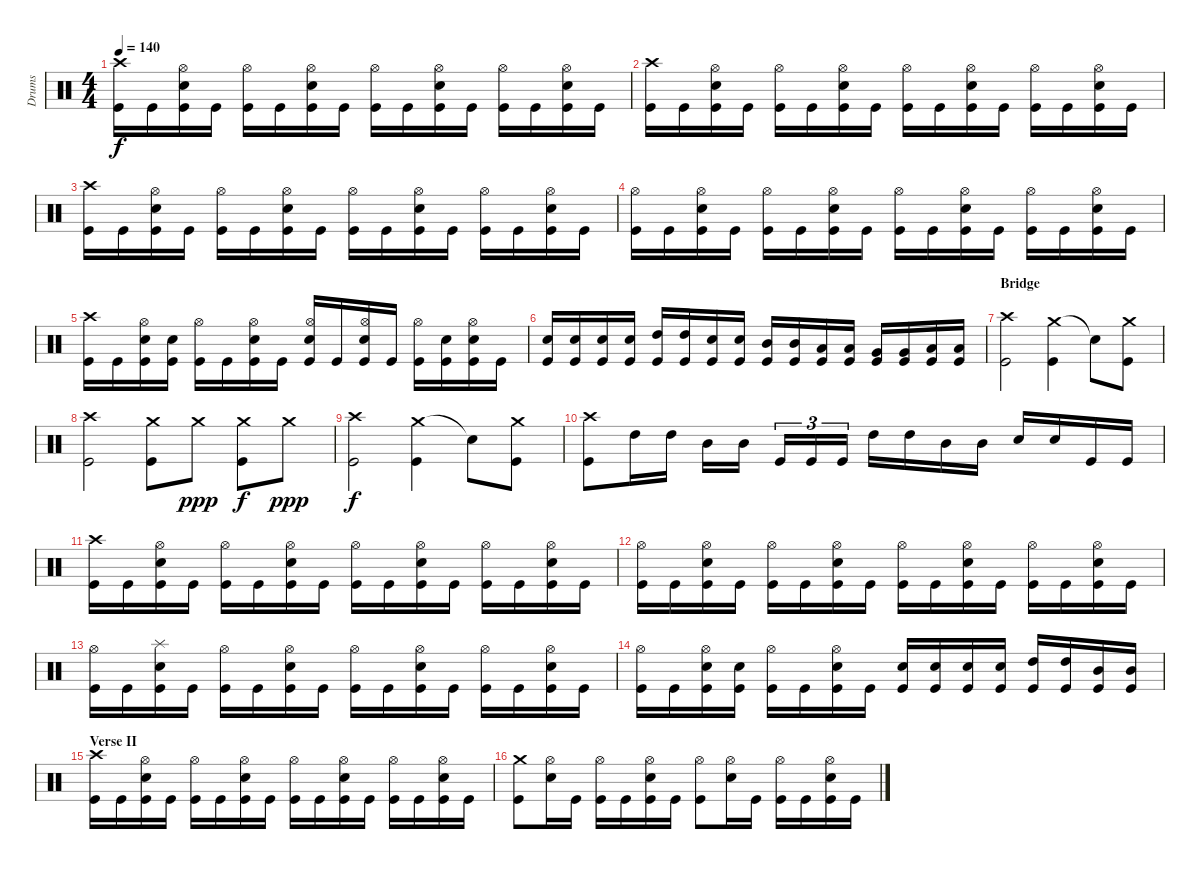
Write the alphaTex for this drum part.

\track ("Drums" "Drums") {instrument percussion}
\staff {score}
\articulation defaults
\ts (4 4)
\tempo 140
\clef neutral
\ks c
("Crash high (hit)" "Kick (hit)").16{dy f} "Kick (hit)".16 ("Hi-Hat (open)" "Electric Snare (hit)" "Kick (hit)").16 "Kick (hit)".16 ("Hi-Hat (open)" "Kick (hit)").16 "Kick (hit)".16 ("Hi-Hat (open)" "Electric Snare (hit)" "Kick (hit)").16 "Kick (hit)".16 ("Hi-Hat (open)" "Kick (hit)").16 "Kick (hit)".16 ("Hi-Hat (open)" "Electric Snare (hit)" "Kick (hit)").16 "Kick (hit)".16 ("Hi-Hat (open)" "Kick (hit)").16 "Kick (hit)".16 ("Hi-Hat (open)" "Electric Snare (hit)" "Kick (hit)").16 "Kick (hit)".16 |
("Crash high (hit)" "Kick (hit)").16 "Kick (hit)".16 ("Hi-Hat (open)" "Electric Snare (hit)" "Kick (hit)").16 "Kick (hit)".16 ("Hi-Hat (open)" "Kick (hit)").16 "Kick (hit)".16 ("Hi-Hat (open)" "Electric Snare (hit)" "Kick (hit)").16 "Kick (hit)".16 ("Hi-Hat (open)" "Kick (hit)").16 "Kick (hit)".16 ("Hi-Hat (open)" "Electric Snare (hit)" "Kick (hit)").16 "Kick (hit)".16 ("Hi-Hat (open)" "Kick (hit)").16 "Kick (hit)".16 ("Hi-Hat (open)" "Electric Snare (hit)" "Kick (hit)").16 "Kick (hit)".16 |
("Crash high (hit)" "Kick (hit)").16 "Kick (hit)".16 ("Hi-Hat (open)" "Electric Snare (hit)" "Kick (hit)").16 "Kick (hit)".16 ("Hi-Hat (open)" "Kick (hit)").16 "Kick (hit)".16 ("Hi-Hat (open)" "Electric Snare (hit)" "Kick (hit)").16 "Kick (hit)".16 ("Hi-Hat (open)" "Kick (hit)").16 "Kick (hit)".16 ("Hi-Hat (open)" "Electric Snare (hit)" "Kick (hit)").16 "Kick (hit)".16 ("Hi-Hat (open)" "Kick (hit)").16 "Kick (hit)".16 ("Hi-Hat (open)" "Electric Snare (hit)" "Kick (hit)").16 "Kick (hit)".16 |
("Hi-Hat (open)" "Kick (hit)").16 "Kick (hit)".16 ("Hi-Hat (open)" "Electric Snare (hit)" "Kick (hit)").16 "Kick (hit)".16 ("Hi-Hat (open)" "Kick (hit)").16 "Kick (hit)".16 ("Hi-Hat (open)" "Electric Snare (hit)" "Kick (hit)").16 "Kick (hit)".16 ("Hi-Hat (open)" "Kick (hit)").16 "Kick (hit)".16 ("Hi-Hat (open)" "Electric Snare (hit)" "Kick (hit)").16 "Kick (hit)".16 ("Hi-Hat (open)" "Kick (hit)").16 "Kick (hit)".16 ("Hi-Hat (open)" "Electric Snare (hit)" "Kick (hit)").16 "Kick (hit)".16 |
("Crash high (hit)" "Kick (hit)").16 "Kick (hit)".16 ("Hi-Hat (open)" "Electric Snare (hit)" "Kick (hit)").16 ("Electric Snare (hit)" "Kick (hit)").16 ("Hi-Hat (open)" "Kick (hit)").16 "Kick (hit)".16 ("Hi-Hat (open)" "Electric Snare (hit)" "Kick (hit)").16 "Kick (hit)".16 ("Hi-Hat (open)" "Electric Snare (hit)" "Kick (hit)").16 "Kick (hit)".16 ("Hi-Hat (open)" "Electric Snare (hit)" "Kick (hit)").16 "Kick (hit)".16 ("Hi-Hat (open)" "Kick (hit)").16 ("Electric Snare (hit)" "Kick (hit)").16 ("Hi-Hat (open)" "Electric Snare (hit)" "Kick (hit)").16 "Kick (hit)".16 |
("Electric Snare (hit)" "Kick (hit)").16 ("Electric Snare (hit)" "Kick (hit)").16 ("Electric Snare (hit)" "Kick (hit)").16 ("Electric Snare (hit)" "Kick (hit)").16 ("High Tom (hit)" "Kick (hit)").16 ("High Tom (hit)" "Kick (hit)").16 ("Electric Snare (hit)" "Kick (hit)").16 ("Electric Snare (hit)" "Kick (hit)").16 ("Mid Tom (hit)" "Kick (hit)").16 ("Mid Tom (hit)" "Kick (hit)").16 ("Low Tom (hit)" "Kick (hit)").16 ("Low Tom (hit)" "Kick (hit)").16 ("Very Low Tom (hit)" "Kick (hit)").16 ("Very Low Tom (hit)" "Kick (hit)").16 ("Low Floor Tom (hit)" "Kick (hit)").16 ("Low Floor Tom (hit)" "Kick (hit)").16 |
\section ("" "Bridge")
("Crash high (hit)" "Kick (hit)").2 ("Crash medium (hit)" "Kick (hit)").4 "Snare (hit)"{t}.8 ("Crash medium (hit)" "Kick (hit)").8 |
("Crash high (hit)" "Kick (hit)").2 ("Crash medium (hit)" "Kick (hit)").8 "Crash medium (hit)".8{dy ppp} ("Crash medium (hit)" "Kick (hit)").8{dy f} "Crash medium (hit)".8{dy ppp} |
("Crash high (hit)" "Kick (hit)").2{dy f} ("Crash medium (hit)" "Kick (hit)").4 "Snare (hit)"{t}.8 ("Crash medium (hit)" "Kick (hit)").8 |
("Crash high (hit)" "Kick (hit)").8 "High Tom (hit)".16 "High Tom (hit)".16 "Mid Tom (hit)".16 "Mid Tom (hit)".16 "Kick (hit)".16{tu (3 2)} "Kick (hit)".16{tu (3 2)} "Kick (hit)".16{tu (3 2)} "High Tom (hit)".16 "High Tom (hit)".16 "Mid Tom (hit)".16 "Mid Tom (hit)".16 "Electric Snare (hit)".16 "Electric Snare (hit)".16 "Kick (hit)".16 "Kick (hit)".16 |
("Crash high (hit)" "Kick (hit)").16 "Kick (hit)".16 ("Hi-Hat (open)" "Electric Snare (hit)" "Kick (hit)").16 "Kick (hit)".16 ("Hi-Hat (open)" "Kick (hit)").16 "Kick (hit)".16 ("Hi-Hat (open)" "Electric Snare (hit)" "Kick (hit)").16 "Kick (hit)".16 ("Hi-Hat (open)" "Kick (hit)").16 "Kick (hit)".16 ("Hi-Hat (open)" "Electric Snare (hit)" "Kick (hit)").16 "Kick (hit)".16 ("Hi-Hat (open)" "Kick (hit)").16 "Kick (hit)".16 ("Hi-Hat (open)" "Electric Snare (hit)" "Kick (hit)").16 "Kick (hit)".16 |
("Hi-Hat (open)" "Kick (hit)").16 "Kick (hit)".16 ("Hi-Hat (open)" "Electric Snare (hit)" "Kick (hit)").16 "Kick (hit)".16 ("Hi-Hat (open)" "Kick (hit)").16 "Kick (hit)".16 ("Hi-Hat (open)" "Electric Snare (hit)" "Kick (hit)").16 "Kick (hit)".16 ("Hi-Hat (open)" "Kick (hit)").16 "Kick (hit)".16 ("Hi-Hat (open)" "Electric Snare (hit)" "Kick (hit)").16 "Kick (hit)".16 ("Hi-Hat (open)" "Kick (hit)").16 "Kick (hit)".16 ("Hi-Hat (open)" "Electric Snare (hit)" "Kick (hit)").16 "Kick (hit)".16 |
("Hi-Hat (open)" "Kick (hit)").16 "Kick (hit)".16 ("Splash (hit)" "Electric Snare (hit)" "Kick (hit)").16 "Kick (hit)".16 ("Hi-Hat (open)" "Kick (hit)").16 "Kick (hit)".16 ("Hi-Hat (open)" "Electric Snare (hit)" "Kick (hit)").16 "Kick (hit)".16 ("Hi-Hat (open)" "Kick (hit)").16 "Kick (hit)".16 ("Hi-Hat (open)" "Electric Snare (hit)" "Kick (hit)").16 "Kick (hit)".16 ("Hi-Hat (open)" "Kick (hit)").16 "Kick (hit)".16 ("Hi-Hat (open)" "Electric Snare (hit)" "Kick (hit)").16 "Kick (hit)".16 |
("Hi-Hat (open)" "Kick (hit)").16 "Kick (hit)".16 ("Hi-Hat (open)" "Electric Snare (hit)" "Kick (hit)").16 ("Electric Snare (hit)" "Kick (hit)").16 ("Hi-Hat (open)" "Kick (hit)").16 "Kick (hit)".16 ("Hi-Hat (open)" "Electric Snare (hit)" "Kick (hit)").16 "Kick (hit)".16 ("Electric Snare (hit)" "Kick (hit)").16 ("Electric Snare (hit)" "Kick (hit)").16 ("Electric Snare (hit)" "Kick (hit)").16 ("Electric Snare (hit)" "Kick (hit)").16 ("High Tom (hit)" "Kick (hit)").16 ("High Tom (hit)" "Kick (hit)").16 ("Mid Tom (hit)" "Kick (hit)").16 ("Mid Tom (hit)" "Kick (hit)").16 |
\section ("" "Verse II")
("Crash high (hit)" "Kick (hit)").16 "Kick (hit)".16 ("Hi-Hat (open)" "Electric Snare (hit)" "Kick (hit)").16 "Kick (hit)".16 ("Hi-Hat (open)" "Kick (hit)").16 "Kick (hit)".16 ("Hi-Hat (open)" "Electric Snare (hit)" "Kick (hit)").16 "Kick (hit)".16 ("Hi-Hat (open)" "Kick (hit)").16 "Kick (hit)".16 ("Hi-Hat (open)" "Electric Snare (hit)" "Kick (hit)").16 "Kick (hit)".16 ("Hi-Hat (open)" "Kick (hit)").16 "Kick (hit)".16 ("Hi-Hat (open)" "Electric Snare (hit)" "Kick (hit)").16 "Kick (hit)".16 |
("Crash medium (hit)" "Kick (hit)").8 ("Hi-Hat (open)" "Electric Snare (hit)").16 "Kick (hit)".16 ("Hi-Hat (open)" "Kick (hit)").16 "Kick (hit)".16 ("Hi-Hat (open)" "Electric Snare (hit)" "Kick (hit)").16 "Kick (hit)".16 ("Hi-Hat (open)" "Kick (hit)").8 ("Hi-Hat (open)" "Electric Snare (hit)").16 "Kick (hit)".16 ("Hi-Hat (open)" "Kick (hit)").16 "Kick (hit)".16 ("Hi-Hat (open)" "Electric Snare (hit)" "Kick (hit)").16 "Kick (hit)".16
